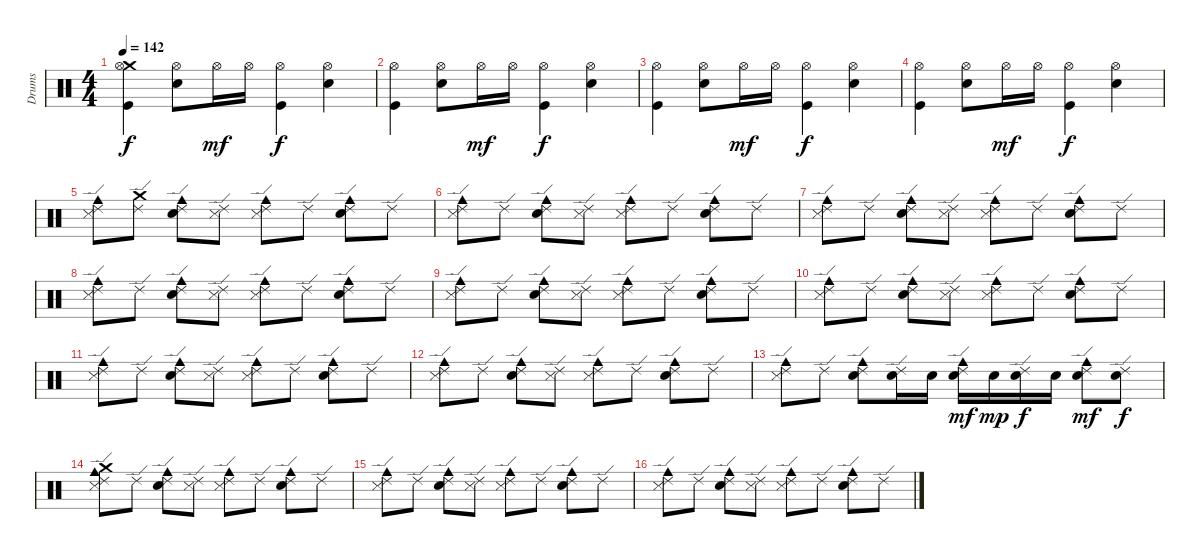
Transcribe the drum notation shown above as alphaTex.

\track ("Drums" "Drums") {instrument percussion}
\staff {score}
\articulation defaults
\ts (4 4)
\tempo 142
\clef neutral
\ks c
("Crash medium (hit)" "Hi-Hat (open)" "Kick (hit)").4{dy f} ("Snare (hit) 2" "Hi-Hat (open)").8 "Hi-Hat (open)".16{dy mf} "Hi-Hat (open)".16 ("Kick (hit)" "Hi-Hat (open)").4{dy f} ("Snare (hit) 2" "Hi-Hat (open)").4 |
("Hi-Hat (open)" "Kick (hit)").4 ("Snare (hit) 2" "Hi-Hat (open)").8 "Hi-Hat (open)".16{dy mf} "Hi-Hat (open)".16 ("Kick (hit)" "Hi-Hat (open)").4{dy f} ("Snare (hit) 2" "Hi-Hat (open)").4 |
("Hi-Hat (open)" "Kick (hit)").4 ("Snare (hit) 2" "Hi-Hat (open)").8 "Hi-Hat (open)".16{dy mf} "Hi-Hat (open)".16 ("Kick (hit)" "Hi-Hat (open)").4{dy f} ("Snare (hit) 2" "Hi-Hat (open)").4 |
("Hi-Hat (open)" "Kick (hit)").4 ("Snare (hit) 2" "Hi-Hat (open)").8 "Hi-Hat (open)".16{dy mf} "Hi-Hat (open)".16 ("Kick (hit)" "Hi-Hat (open)").4{dy f} ("Snare (hit) 2" "Hi-Hat (open)").4 |
("Metronome (hit)" "Cowbell medium (hit)" "Ride (edge) 2").8 ("Crash medium (hit)" "Ride (edge) 2").8 ("Cowbell medium (hit)" "Ride (edge) 2" "Snare (hit) 2").8 ("Ride (edge) 2" "Metronome (hit)").8 ("Cowbell medium (hit)" "Ride (edge) 2" "Metronome (hit)").8 "Ride (edge) 2".8 ("Cowbell medium (hit)" "Ride (edge) 2" "Snare (hit) 2").8 "Ride (edge) 2".8 |
("Metronome (hit)" "Cowbell medium (hit)" "Ride (edge) 2").8 "Ride (edge) 2".8 ("Cowbell medium (hit)" "Ride (edge) 2" "Snare (hit) 2").8 ("Ride (edge) 2" "Metronome (hit)").8 ("Cowbell medium (hit)" "Ride (edge) 2" "Metronome (hit)").8 "Ride (edge) 2".8 ("Cowbell medium (hit)" "Ride (edge) 2" "Snare (hit) 2").8 "Ride (edge) 2".8 |
("Metronome (hit)" "Cowbell medium (hit)" "Ride (edge) 2").8 "Ride (edge) 2".8 ("Cowbell medium (hit)" "Ride (edge) 2" "Snare (hit) 2").8 ("Ride (edge) 2" "Metronome (hit)").8 ("Cowbell medium (hit)" "Ride (edge) 2" "Metronome (hit)").8 "Ride (edge) 2".8 ("Cowbell medium (hit)" "Ride (edge) 2" "Snare (hit) 2").8 "Ride (edge) 2".8 |
("Metronome (hit)" "Cowbell medium (hit)" "Ride (edge) 2").8 "Ride (edge) 2".8 ("Cowbell medium (hit)" "Ride (edge) 2" "Snare (hit) 2").8 ("Ride (edge) 2" "Metronome (hit)").8 ("Cowbell medium (hit)" "Ride (edge) 2" "Metronome (hit)").8 "Ride (edge) 2".8 ("Cowbell medium (hit)" "Ride (edge) 2" "Snare (hit) 2").8 "Ride (edge) 2".8 |
("Metronome (hit)" "Cowbell medium (hit)" "Ride (edge) 2").8 "Ride (edge) 2".8 ("Cowbell medium (hit)" "Ride (edge) 2" "Snare (hit) 2").8 ("Ride (edge) 2" "Metronome (hit)").8 ("Cowbell medium (hit)" "Ride (edge) 2" "Metronome (hit)").8 "Ride (edge) 2".8 ("Cowbell medium (hit)" "Ride (edge) 2" "Snare (hit) 2").8 "Ride (edge) 2".8 |
("Metronome (hit)" "Cowbell medium (hit)" "Ride (edge) 2").8 "Ride (edge) 2".8 ("Cowbell medium (hit)" "Ride (edge) 2" "Snare (hit) 2").8 ("Ride (edge) 2" "Metronome (hit)").8 ("Cowbell medium (hit)" "Ride (edge) 2" "Metronome (hit)").8 "Ride (edge) 2".8 ("Cowbell medium (hit)" "Ride (edge) 2" "Snare (hit) 2").8 "Ride (edge) 2".8 |
("Metronome (hit)" "Cowbell medium (hit)" "Ride (edge) 2").8 "Ride (edge) 2".8 ("Cowbell medium (hit)" "Ride (edge) 2" "Snare (hit) 2").8 ("Ride (edge) 2" "Metronome (hit)").8 ("Cowbell medium (hit)" "Ride (edge) 2" "Metronome (hit)").8 "Ride (edge) 2".8 ("Cowbell medium (hit)" "Ride (edge) 2" "Snare (hit) 2").8 "Ride (edge) 2".8 |
("Metronome (hit)" "Cowbell medium (hit)" "Ride (edge) 2").8 "Ride (edge) 2".8 ("Cowbell medium (hit)" "Ride (edge) 2" "Snare (hit) 2").8 ("Ride (edge) 2" "Metronome (hit)").8 ("Cowbell medium (hit)" "Ride (edge) 2" "Metronome (hit)").8 "Ride (edge) 2".8 ("Cowbell medium (hit)" "Ride (edge) 2" "Snare (hit) 2").8 "Ride (edge) 2".8 |
("Metronome (hit)" "Cowbell medium (hit)" "Ride (edge) 2").8 "Ride (edge) 2".8 ("Snare (hit) 2" "Cowbell medium (hit)" "Ride (edge) 2").8 ("Snare (hit) 2" "Ride (edge) 2").16 "Snare (hit) 2".16 ("Snare (hit) 2" "Cowbell medium (hit)" "Ride (edge) 2").16{dy mf} "Snare (hit) 2".16{dy mp} ("Snare (hit) 2" "Ride (edge) 2").16{dy f} "Snare (hit) 2".16 ("Snare (hit) 2" "Cowbell medium (hit)" "Ride (edge) 2").8{dy mf} ("Snare (hit) 2" "Ride (edge) 2").8{dy f} |
("Crash medium (hit)" "Metronome (hit)" "Cowbell medium (hit)" "Ride (edge) 2").8 "Ride (edge) 2".8 ("Cowbell medium (hit)" "Ride (edge) 2" "Snare (hit) 2").8 ("Ride (edge) 2" "Metronome (hit)").8 ("Cowbell medium (hit)" "Ride (edge) 2" "Metronome (hit)").8 "Ride (edge) 2".8 ("Cowbell medium (hit)" "Ride (edge) 2" "Snare (hit) 2").8 "Ride (edge) 2".8 |
("Metronome (hit)" "Cowbell medium (hit)" "Ride (edge) 2").8 "Ride (edge) 2".8 ("Cowbell medium (hit)" "Ride (edge) 2" "Snare (hit) 2").8 ("Ride (edge) 2" "Metronome (hit)").8 ("Cowbell medium (hit)" "Ride (edge) 2" "Metronome (hit)").8 "Ride (edge) 2".8 ("Cowbell medium (hit)" "Ride (edge) 2" "Snare (hit) 2").8 "Ride (edge) 2".8 |
("Metronome (hit)" "Cowbell medium (hit)" "Ride (edge) 2").8 "Ride (edge) 2".8 ("Cowbell medium (hit)" "Ride (edge) 2" "Snare (hit) 2").8 ("Ride (edge) 2" "Metronome (hit)").8 ("Cowbell medium (hit)" "Ride (edge) 2" "Metronome (hit)").8 "Ride (edge) 2".8 ("Cowbell medium (hit)" "Ride (edge) 2" "Snare (hit) 2").8 "Ride (edge) 2".8
